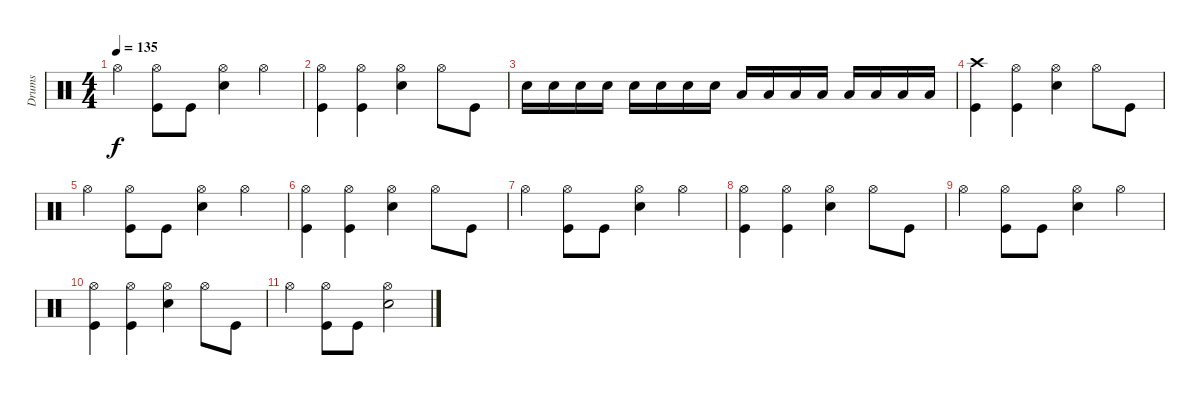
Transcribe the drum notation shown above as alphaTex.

\track ("Drums" "Drums") {instrument percussion}
\staff {score}
\articulation defaults
\ts (4 4)
\tempo 135
\clef neutral
\ks c "Hi-Hat (open)".4{dy f}
("Hi-Hat (open)" "Kick (hit)").8 "Kick (hit)".8 ("Hi-Hat (open)" "Snare (hit) 2").4 "Hi-Hat (open)".4 |
("Hi-Hat (open)" "Kick (hit)").4 ("Hi-Hat (open)" "Kick (hit)").4 ("Hi-Hat (open)" "Snare (hit) 2").4 "Hi-Hat (open)".8 "Kick (hit)".8 |
"Snare (hit) 2".16 "Snare (hit) 2".16 "Snare (hit) 2".16 "Snare (hit) 2".16 "Snare (hit) 2".16 "Snare (hit) 2".16 "Snare (hit) 2".16 "Snare (hit) 2".16 "Low Tom (hit)".16 "Low Tom (hit)".16 "Low Tom (hit)".16 "Low Tom (hit)".16 "Low Floor Tom (hit)".16 "Low Floor Tom (hit)".16 "Low Floor Tom (hit)".16 "Low Floor Tom (hit)".16 |
("Crash high (hit)" "Kick (hit)").4 ("Hi-Hat (open)" "Kick (hit)").4 ("Hi-Hat (open)" "Snare (hit) 2").4 "Hi-Hat (open)".8 "Kick (hit)".8 |
"Hi-Hat (open)".4 ("Hi-Hat (open)" "Kick (hit)").8 "Kick (hit)".8 ("Hi-Hat (open)" "Snare (hit) 2").4 "Hi-Hat (open)".4 |
("Hi-Hat (open)" "Kick (hit)").4 ("Hi-Hat (open)" "Kick (hit)").4 ("Hi-Hat (open)" "Snare (hit) 2").4 "Hi-Hat (open)".8 "Kick (hit)".8 |
"Hi-Hat (open)".4 ("Hi-Hat (open)" "Kick (hit)").8 "Kick (hit)".8 ("Hi-Hat (open)" "Snare (hit) 2").4 "Hi-Hat (open)".4 |
("Hi-Hat (open)" "Kick (hit)").4 ("Hi-Hat (open)" "Kick (hit)").4 ("Hi-Hat (open)" "Snare (hit) 2").4 "Hi-Hat (open)".8 "Kick (hit)".8 |
"Hi-Hat (open)".4 ("Hi-Hat (open)" "Kick (hit)").8 "Kick (hit)".8 ("Hi-Hat (open)" "Snare (hit) 2").4 "Hi-Hat (open)".4 |
("Hi-Hat (open)" "Kick (hit)").4 ("Hi-Hat (open)" "Kick (hit)").4 ("Hi-Hat (open)" "Snare (hit) 2").4 "Hi-Hat (open)".8 "Kick (hit)".8 |
"Hi-Hat (open)".4 ("Hi-Hat (open)" "Kick (hit)").8 "Kick (hit)".8 ("Hi-Hat (open)" "Snare (hit) 2").2
